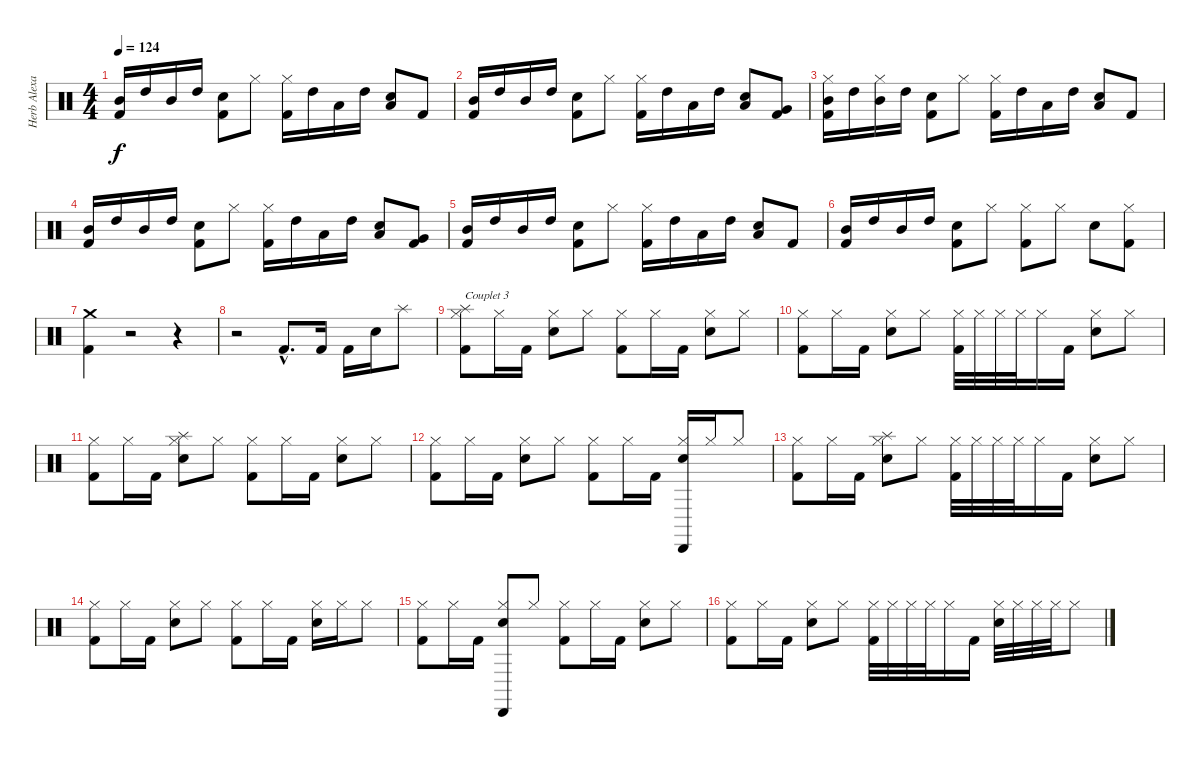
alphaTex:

\track ("Herb Alexander" "Herb Alexa") {instrument percussion}
\staff {score}
\articulation defaults
\ts (4 4)
\tempo 124
\clef neutral
\ks c
("Mid Tom (hit)" "Kick (hit) 2").16{dy f} "High Tom (hit)".16 "Mid Tom (hit)".16 "High Tom (hit)".16 ("Electric Snare (hit)" "Kick (hit) 2").8 "Hi-Hat (closed)".8 ("Hi-Hat (closed)" "Kick (hit) 2").16 "High Tom (hit)".16 "Low Tom (hit)".16 "High Tom (hit)".16 ("Low Tom (hit)" "Electric Snare (hit)").8 "Kick (hit) 2".8 |
("Mid Tom (hit)" "Kick (hit) 2").16 "High Tom (hit)".16 "Mid Tom (hit)".16 "High Tom (hit)".16 ("Electric Snare (hit)" "Kick (hit) 2").8 "Hi-Hat (closed)".8 ("Hi-Hat (closed)" "Kick (hit) 2").16 "High Tom (hit)".16 "Low Tom (hit)".16 "High Tom (hit)".16 ("Low Tom (hit)" "Electric Snare (hit)").8 ("Very Low Tom (hit)" "Kick (hit) 2").8 |
("Mid Tom (hit)" "Hi-Hat (closed)" "Kick (hit) 2").16 "High Tom (hit)".16 ("Mid Tom (hit)" "Hi-Hat (closed)").16 "High Tom (hit)".16 ("Electric Snare (hit)" "Kick (hit) 2").8 "Hi-Hat (closed)".8 ("Hi-Hat (closed)" "Kick (hit) 2").16 "High Tom (hit)".16 "Low Tom (hit)".16 "High Tom (hit)".16 ("Low Tom (hit)" "Electric Snare (hit)").8 "Kick (hit) 2".8 |
("Mid Tom (hit)" "Kick (hit) 2").16 "High Tom (hit)".16 "Mid Tom (hit)".16 "High Tom (hit)".16 ("Electric Snare (hit)" "Kick (hit) 2").8 "Hi-Hat (closed)".8 ("Hi-Hat (closed)" "Kick (hit) 2").16 "High Tom (hit)".16 "Low Tom (hit)".16 "High Tom (hit)".16 ("Low Tom (hit)" "Electric Snare (hit)").8 ("Very Low Tom (hit)" "Kick (hit) 2").8 |
("Mid Tom (hit)" "Kick (hit) 2").16 "High Tom (hit)".16 "Mid Tom (hit)".16 "High Tom (hit)".16 ("Electric Snare (hit)" "Kick (hit) 2").8 "Hi-Hat (closed)".8 ("Hi-Hat (closed)" "Kick (hit) 2").16 "High Tom (hit)".16 "Low Tom (hit)".16 "High Tom (hit)".16 ("Low Tom (hit)" "Electric Snare (hit)").8 "Kick (hit) 2".8 |
("Mid Tom (hit)" "Kick (hit) 2").16 "High Tom (hit)".16 "Mid Tom (hit)".16 "High Tom (hit)".16 ("Electric Snare (hit)" "Kick (hit) 2").8 "Hi-Hat (closed)".8 ("Hi-Hat (closed)" "Kick (hit) 2").8 "Hi-Hat (closed)".8 "Electric Snare (hit)".8 ("Hi-Hat (closed)" "Kick (hit) 2").8 |
("Crash medium (hit)" "Kick (hit) 2").4 r.2 r.4 |
r.2 "Kick (hit) 2"{hac}.8{d} "Kick (hit) 2".16 "Kick (hit) 2".16 "Electric Snare (hit)".16 "Splash (hit)".8 |
("Splash (hit)" "Hi-Hat (closed)" "Kick (hit) 2").8{txt "Couplet 3"} "Hi-Hat (closed)".16 "Kick (hit) 2".16 ("Electric Snare (hit)" "Hi-Hat (closed)").8 "Hi-Hat (closed)".8 ("Hi-Hat (closed)" "Kick (hit) 2").8 "Hi-Hat (closed)".16 "Kick (hit) 2".16 ("Electric Snare (hit)" "Hi-Hat (closed)").8 "Hi-Hat (closed)".8 |
("Hi-Hat (closed)" "Kick (hit) 2").8 "Hi-Hat (closed)".16 "Kick (hit) 2".16 ("Electric Snare (hit)" "Hi-Hat (closed)").8 "Hi-Hat (closed)".8 ("Hi-Hat (closed)" "Kick (hit) 2").32 "Hi-Hat (closed)".32 "Hi-Hat (closed)".32 "Hi-Hat (closed)".32 "Hi-Hat (closed)".16 "Kick (hit) 2".16 ("Electric Snare (hit)" "Hi-Hat (closed)").8 "Hi-Hat (closed)".8 |
("Hi-Hat (closed)" "Kick (hit) 2").8 "Hi-Hat (closed)".16 "Kick (hit) 2".16 ("Splash (hit)" "Electric Snare (hit)" "Hi-Hat (closed)").8 "Hi-Hat (closed)".8 ("Hi-Hat (closed)" "Kick (hit) 2").8 "Hi-Hat (closed)".16 "Kick (hit) 2".16 ("Electric Snare (hit)" "Hi-Hat (closed)").8 "Hi-Hat (closed)".8 |
("Hi-Hat (closed)" "Kick (hit) 2").8 "Hi-Hat (closed)".16 "Kick (hit) 2".16 ("Electric Snare (hit)" "Hi-Hat (closed)").8 "Hi-Hat (closed)".8 ("Hi-Hat (closed)" "Kick (hit) 2").8 "Hi-Hat (closed)".16 "Kick (hit) 2".16 ("Cabasa (hit)" "Electric Snare (hit)" "Hi-Hat (closed)").16 "Hi-Hat (closed)".16 "Hi-Hat (closed)".8 |
("Hi-Hat (closed)" "Kick (hit) 2").8 "Hi-Hat (closed)".16 "Kick (hit) 2".16 ("Splash (hit)" "Electric Snare (hit)" "Hi-Hat (closed)").8 "Hi-Hat (closed)".8 ("Hi-Hat (closed)" "Kick (hit) 2").32 "Hi-Hat (closed)".32 "Hi-Hat (closed)".32 "Hi-Hat (closed)".32 "Hi-Hat (closed)".16 "Kick (hit) 2".16 ("Electric Snare (hit)" "Hi-Hat (closed)").8 "Hi-Hat (closed)".8 |
("Hi-Hat (closed)" "Kick (hit) 2").8 "Hi-Hat (closed)".16 "Kick (hit) 2".16 ("Electric Snare (hit)" "Hi-Hat (closed)").8 "Hi-Hat (closed)".8 ("Hi-Hat (closed)" "Kick (hit) 2").8 "Hi-Hat (closed)".16 "Kick (hit) 2".16 ("Electric Snare (hit)" "Hi-Hat (closed)").16 "Hi-Hat (closed)".16 "Hi-Hat (closed)".8 |
("Hi-Hat (closed)" "Kick (hit) 2").8 "Hi-Hat (closed)".16 "Kick (hit) 2".16 ("Cabasa (hit)" "Electric Snare (hit)" "Hi-Hat (closed)").8 "Hi-Hat (closed)".8 ("Hi-Hat (closed)" "Kick (hit) 2").8 "Hi-Hat (closed)".16 "Kick (hit) 2".16 ("Electric Snare (hit)" "Hi-Hat (closed)").8 "Hi-Hat (closed)".8 |
("Hi-Hat (closed)" "Kick (hit) 2").8 "Hi-Hat (closed)".16 "Kick (hit) 2".16 ("Electric Snare (hit)" "Hi-Hat (closed)").8 "Hi-Hat (closed)".8 ("Hi-Hat (closed)" "Kick (hit) 2").32 "Hi-Hat (closed)".32 "Hi-Hat (closed)".32 "Hi-Hat (closed)".32 "Hi-Hat (closed)".16 "Kick (hit) 2".16 ("Electric Snare (hit)" "Hi-Hat (closed)").32 "Hi-Hat (closed)".32 "Hi-Hat (closed)".32 "Hi-Hat (closed)".32 "Hi-Hat (closed)".8
